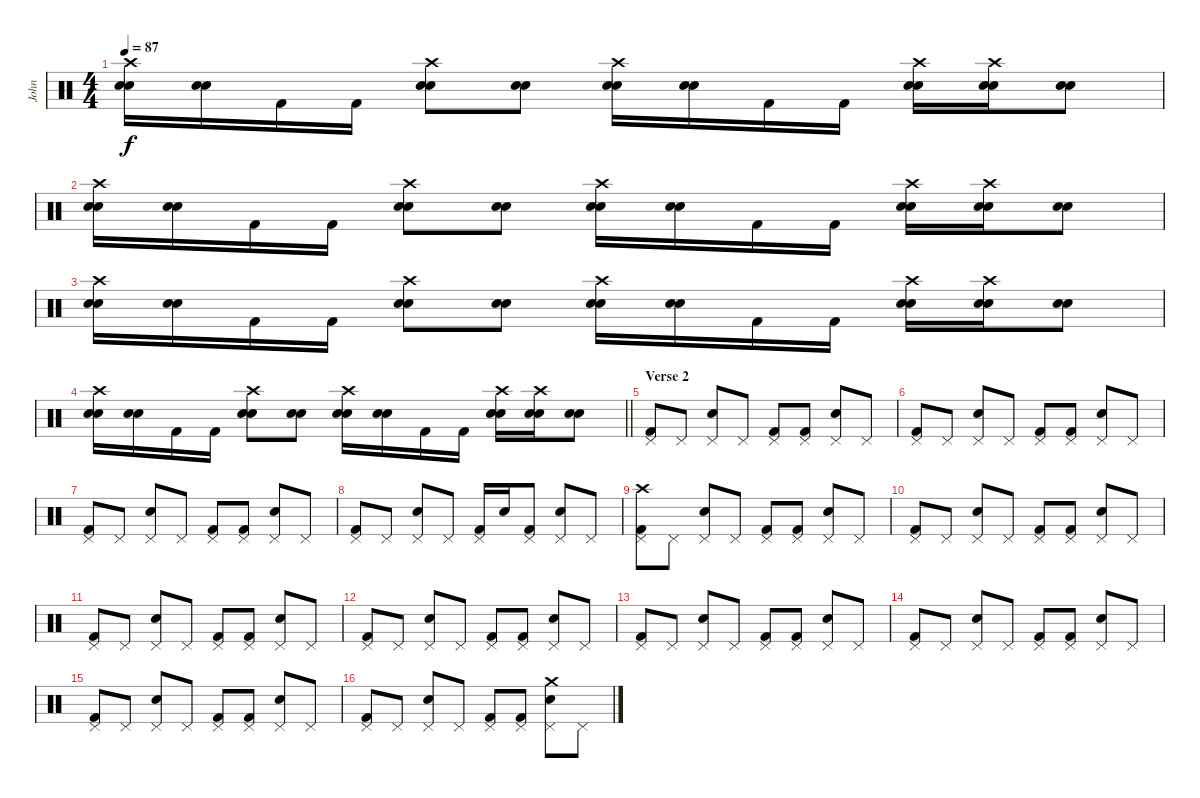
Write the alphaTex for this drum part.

\track ("John" "John") {instrument percussion}
\staff {score}
\articulation defaults
\ts (4 4)
\tempo 87
\clef neutral
\ks c
("Crash high (hit)" "Snare (hit) 2" "Electric Snare (hit)").16{dy f} ("Snare (hit) 2" "Electric Snare (hit)").16 "Kick (hit) 2".16 "Kick (hit) 2".16 ("Crash high (hit)" "Snare (hit) 2" "Electric Snare (hit)").8 ("Snare (hit) 2" "Electric Snare (hit)").8 ("Crash high (hit)" "Snare (hit) 2" "Electric Snare (hit)").16 ("Snare (hit) 2" "Electric Snare (hit)").16 "Kick (hit) 2".16 "Kick (hit) 2".16 ("Crash high (hit)" "Snare (hit) 2" "Electric Snare (hit)").16 ("Crash high (hit)" "Snare (hit) 2" "Electric Snare (hit)").16 ("Snare (hit) 2" "Electric Snare (hit)").8 |
("Crash high (hit)" "Snare (hit) 2" "Electric Snare (hit)").16 ("Snare (hit) 2" "Electric Snare (hit)").16 "Kick (hit) 2".16 "Kick (hit) 2".16 ("Crash high (hit)" "Snare (hit) 2" "Electric Snare (hit)").8 ("Snare (hit) 2" "Electric Snare (hit)").8 ("Crash high (hit)" "Snare (hit) 2" "Electric Snare (hit)").16 ("Snare (hit) 2" "Electric Snare (hit)").16 "Kick (hit) 2".16 "Kick (hit) 2".16 ("Crash high (hit)" "Snare (hit) 2" "Electric Snare (hit)").16 ("Crash high (hit)" "Snare (hit) 2" "Electric Snare (hit)").16 ("Snare (hit) 2" "Electric Snare (hit)").8 |
("Crash high (hit)" "Snare (hit) 2" "Electric Snare (hit)").16 ("Snare (hit) 2" "Electric Snare (hit)").16 "Kick (hit) 2".16 "Kick (hit) 2".16 ("Crash high (hit)" "Snare (hit) 2" "Electric Snare (hit)").8 ("Snare (hit) 2" "Electric Snare (hit)").8 ("Crash high (hit)" "Snare (hit) 2" "Electric Snare (hit)").16 ("Snare (hit) 2" "Electric Snare (hit)").16 "Kick (hit) 2".16 "Kick (hit) 2".16 ("Crash high (hit)" "Snare (hit) 2" "Electric Snare (hit)").16 ("Crash high (hit)" "Snare (hit) 2" "Electric Snare (hit)").16 ("Snare (hit) 2" "Electric Snare (hit)").8 |
\barLineRight lightlight
("Crash high (hit)" "Snare (hit) 2" "Electric Snare (hit)").16 ("Snare (hit) 2" "Electric Snare (hit)").16 "Kick (hit) 2".16 "Kick (hit) 2".16 ("Crash high (hit)" "Snare (hit) 2" "Electric Snare (hit)").8 ("Snare (hit) 2" "Electric Snare (hit)").8 ("Crash high (hit)" "Snare (hit) 2" "Electric Snare (hit)").16 ("Snare (hit) 2" "Electric Snare (hit)").16 "Kick (hit) 2".16 "Kick (hit) 2".16 ("Crash high (hit)" "Snare (hit) 2" "Electric Snare (hit)").16 ("Crash high (hit)" "Snare (hit) 2" "Electric Snare (hit)").16 ("Snare (hit) 2" "Electric Snare (hit)").8 |
\section ("" "Verse 2")
("Kick (hit) 2" "Pedal Hi-Hat (hit)").8 "Pedal Hi-Hat (hit)".8 ("Electric Snare (hit)" "Pedal Hi-Hat (hit)").8 "Pedal Hi-Hat (hit)".8 ("Kick (hit) 2" "Pedal Hi-Hat (hit)").8 ("Kick (hit) 2" "Pedal Hi-Hat (hit)").8 ("Electric Snare (hit)" "Pedal Hi-Hat (hit)").8 "Pedal Hi-Hat (hit)".8 |
("Kick (hit) 2" "Pedal Hi-Hat (hit)").8 "Pedal Hi-Hat (hit)".8 ("Electric Snare (hit)" "Pedal Hi-Hat (hit)").8 "Pedal Hi-Hat (hit)".8 ("Kick (hit) 2" "Pedal Hi-Hat (hit)").8 ("Kick (hit) 2" "Pedal Hi-Hat (hit)").8 ("Electric Snare (hit)" "Pedal Hi-Hat (hit)").8 "Pedal Hi-Hat (hit)".8 |
("Kick (hit) 2" "Pedal Hi-Hat (hit)").8 "Pedal Hi-Hat (hit)".8 ("Electric Snare (hit)" "Pedal Hi-Hat (hit)").8 "Pedal Hi-Hat (hit)".8 ("Kick (hit) 2" "Pedal Hi-Hat (hit)").8 ("Kick (hit) 2" "Pedal Hi-Hat (hit)").8 ("Electric Snare (hit)" "Pedal Hi-Hat (hit)").8 "Pedal Hi-Hat (hit)".8 |
("Kick (hit) 2" "Pedal Hi-Hat (hit)").8 "Pedal Hi-Hat (hit)".8 ("Electric Snare (hit)" "Pedal Hi-Hat (hit)").8 "Pedal Hi-Hat (hit)".8 ("Kick (hit) 2" "Pedal Hi-Hat (hit)").16 "Electric Snare (hit)".16 ("Kick (hit) 2" "Pedal Hi-Hat (hit)").8 ("Electric Snare (hit)" "Pedal Hi-Hat (hit)").8 "Pedal Hi-Hat (hit)".8 |
("Crash high (hit)" "Kick (hit) 2" "Pedal Hi-Hat (hit)").8 "Pedal Hi-Hat (hit)".8 ("Electric Snare (hit)" "Pedal Hi-Hat (hit)").8 "Pedal Hi-Hat (hit)".8 ("Kick (hit) 2" "Pedal Hi-Hat (hit)").8 ("Kick (hit) 2" "Pedal Hi-Hat (hit)").8 ("Electric Snare (hit)" "Pedal Hi-Hat (hit)").8 "Pedal Hi-Hat (hit)".8 |
("Kick (hit) 2" "Pedal Hi-Hat (hit)").8 "Pedal Hi-Hat (hit)".8 ("Electric Snare (hit)" "Pedal Hi-Hat (hit)").8 "Pedal Hi-Hat (hit)".8 ("Kick (hit) 2" "Pedal Hi-Hat (hit)").8 ("Kick (hit) 2" "Pedal Hi-Hat (hit)").8 ("Electric Snare (hit)" "Pedal Hi-Hat (hit)").8 "Pedal Hi-Hat (hit)".8 |
("Kick (hit) 2" "Pedal Hi-Hat (hit)").8 "Pedal Hi-Hat (hit)".8 ("Electric Snare (hit)" "Pedal Hi-Hat (hit)").8 "Pedal Hi-Hat (hit)".8 ("Kick (hit) 2" "Pedal Hi-Hat (hit)").8 ("Kick (hit) 2" "Pedal Hi-Hat (hit)").8 ("Electric Snare (hit)" "Pedal Hi-Hat (hit)").8 "Pedal Hi-Hat (hit)".8 |
("Kick (hit) 2" "Pedal Hi-Hat (hit)").8 "Pedal Hi-Hat (hit)".8 ("Electric Snare (hit)" "Pedal Hi-Hat (hit)").8 "Pedal Hi-Hat (hit)".8 ("Kick (hit) 2" "Pedal Hi-Hat (hit)").8 ("Kick (hit) 2" "Pedal Hi-Hat (hit)").8 ("Electric Snare (hit)" "Pedal Hi-Hat (hit)").8 "Pedal Hi-Hat (hit)".8 |
("Kick (hit) 2" "Pedal Hi-Hat (hit)").8 "Pedal Hi-Hat (hit)".8 ("Electric Snare (hit)" "Pedal Hi-Hat (hit)").8 "Pedal Hi-Hat (hit)".8 ("Kick (hit) 2" "Pedal Hi-Hat (hit)").8 ("Kick (hit) 2" "Pedal Hi-Hat (hit)").8 ("Electric Snare (hit)" "Pedal Hi-Hat (hit)").8 "Pedal Hi-Hat (hit)".8 |
("Kick (hit) 2" "Pedal Hi-Hat (hit)").8 "Pedal Hi-Hat (hit)".8 ("Electric Snare (hit)" "Pedal Hi-Hat (hit)").8 "Pedal Hi-Hat (hit)".8 ("Kick (hit) 2" "Pedal Hi-Hat (hit)").8 ("Kick (hit) 2" "Pedal Hi-Hat (hit)").8 ("Electric Snare (hit)" "Pedal Hi-Hat (hit)").8 "Pedal Hi-Hat (hit)".8 |
("Kick (hit) 2" "Pedal Hi-Hat (hit)").8 "Pedal Hi-Hat (hit)".8 ("Electric Snare (hit)" "Pedal Hi-Hat (hit)").8 "Pedal Hi-Hat (hit)".8 ("Kick (hit) 2" "Pedal Hi-Hat (hit)").8 ("Kick (hit) 2" "Pedal Hi-Hat (hit)").8 ("Electric Snare (hit)" "Pedal Hi-Hat (hit)").8 "Pedal Hi-Hat (hit)".8 |
("Kick (hit) 2" "Pedal Hi-Hat (hit)").8 "Pedal Hi-Hat (hit)".8 ("Electric Snare (hit)" "Pedal Hi-Hat (hit)").8 "Pedal Hi-Hat (hit)".8 ("Kick (hit) 2" "Pedal Hi-Hat (hit)").8 ("Kick (hit) 2" "Pedal Hi-Hat (hit)").8 ("Crash medium (hit)" "Electric Snare (hit)" "Pedal Hi-Hat (hit)").8 "Pedal Hi-Hat (hit)".8
